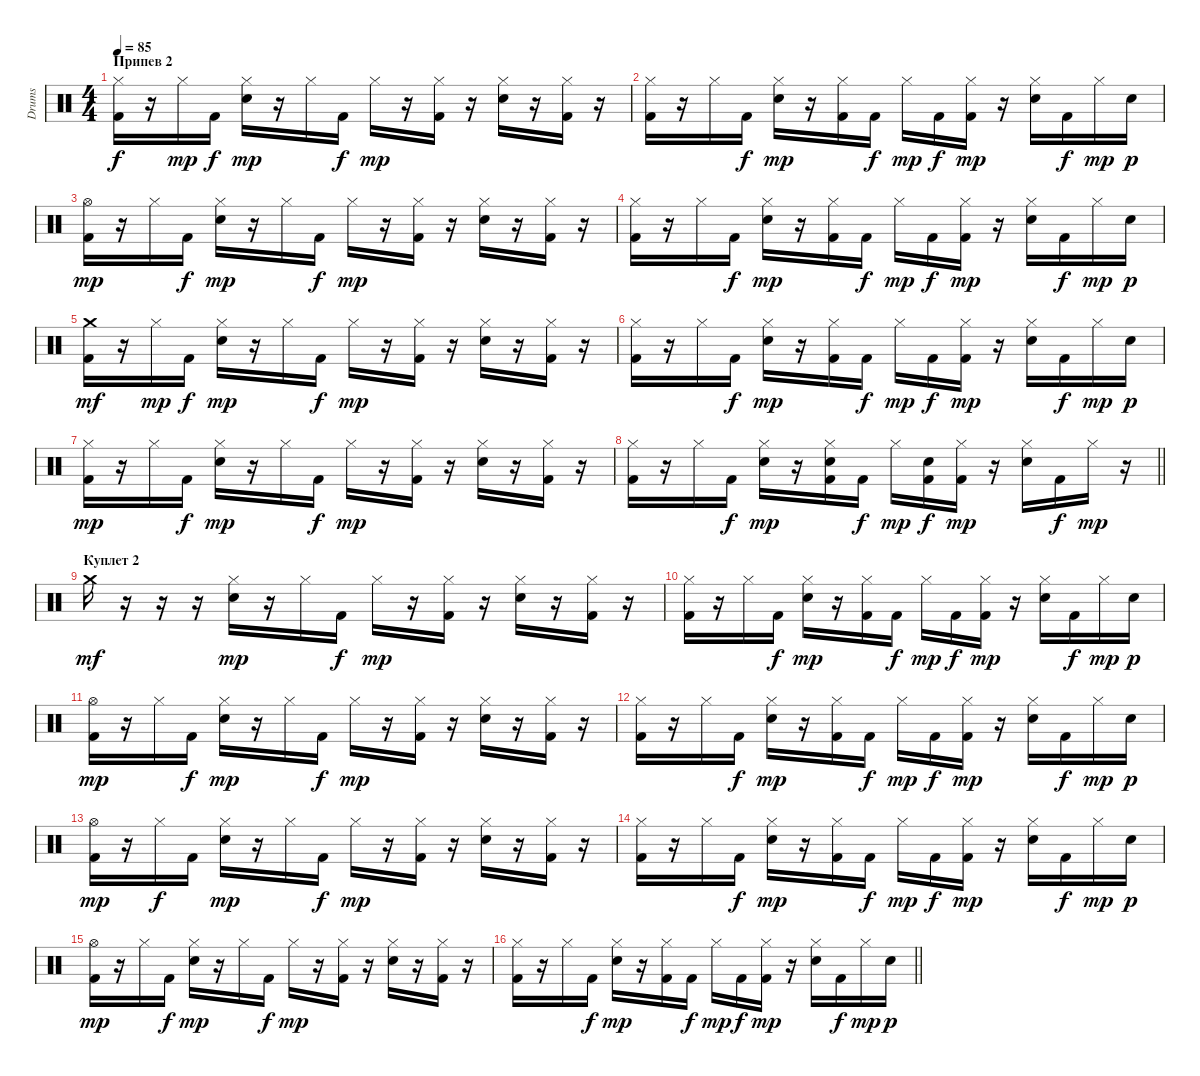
\track ("Drums" "Drums") {instrument percussion}
\staff {score}
\articulation defaults
\ts (4 4)
\section ("" "Припев 2")
\tempo 85
\clef neutral
\ks c
("Hi-Hat (closed)" "Kick (hit) 2").16{dy f} r.16 "Hi-Hat (closed)".16{dy mp} "Kick (hit) 2".16{dy f} ("Hi-Hat (closed)" "Snare (hit) 2").16{dy mp} r.16 "Hi-Hat (closed)".16 "Kick (hit) 2".16{dy f} "Hi-Hat (closed)".16{dy mp} r.16 ("Hi-Hat (closed)" "Kick (hit) 2").16 r.16 ("Hi-Hat (closed)" "Snare (hit) 2").16 r.16 ("Hi-Hat (closed)" "Kick (hit) 2").16 r.16 |
("Hi-Hat (closed)" "Kick (hit) 2").16 r.16 "Hi-Hat (closed)".16 "Kick (hit) 2".16{dy f} ("Hi-Hat (closed)" "Snare (hit) 2").16{dy mp} r.16 ("Hi-Hat (closed)" "Kick (hit) 2").16 "Kick (hit) 2".16{dy f} "Hi-Hat (closed)".16{dy mp} "Kick (hit) 2".16{dy f} ("Hi-Hat (closed)" "Kick (hit) 2").16{dy mp} r.16 ("Hi-Hat (closed)" "Snare (hit) 2").16 "Kick (hit) 2".16{dy f} "Hi-Hat (closed)".16{dy mp} "Snare (hit) 2".16{dy p} |
("Hi-Hat (open)" "Kick (hit) 2").16{dy mp} r.16 "Hi-Hat (closed)".16 "Kick (hit) 2".16{dy f} ("Hi-Hat (closed)" "Snare (hit) 2").16{dy mp} r.16 "Hi-Hat (closed)".16 "Kick (hit) 2".16{dy f} "Hi-Hat (closed)".16{dy mp} r.16 ("Hi-Hat (closed)" "Kick (hit) 2").16 r.16 ("Hi-Hat (closed)" "Snare (hit) 2").16 r.16 ("Hi-Hat (closed)" "Kick (hit) 2").16 r.16 |
("Hi-Hat (closed)" "Kick (hit) 2").16 r.16 "Hi-Hat (closed)".16 "Kick (hit) 2".16{dy f} ("Hi-Hat (closed)" "Snare (hit) 2").16{dy mp} r.16 ("Hi-Hat (closed)" "Kick (hit) 2").16 "Kick (hit) 2".16{dy f} "Hi-Hat (closed)".16{dy mp} "Kick (hit) 2".16{dy f} ("Hi-Hat (closed)" "Kick (hit) 2").16{dy mp} r.16 ("Hi-Hat (closed)" "Snare (hit) 2").16 "Kick (hit) 2".16{dy f} "Hi-Hat (closed)".16{dy mp} "Snare (hit) 2".16{dy p} |
("Crash medium (hit)" "Kick (hit) 2").16{dy mf} r.16 "Hi-Hat (closed)".16{dy mp} "Kick (hit) 2".16{dy f} ("Hi-Hat (closed)" "Snare (hit) 2").16{dy mp} r.16 "Hi-Hat (closed)".16 "Kick (hit) 2".16{dy f} "Hi-Hat (closed)".16{dy mp} r.16 ("Hi-Hat (closed)" "Kick (hit) 2").16 r.16 ("Hi-Hat (closed)" "Snare (hit) 2").16 r.16 ("Hi-Hat (closed)" "Kick (hit) 2").16 r.16 |
("Hi-Hat (closed)" "Kick (hit) 2").16 r.16 "Hi-Hat (closed)".16 "Kick (hit) 2".16{dy f} ("Hi-Hat (closed)" "Snare (hit) 2").16{dy mp} r.16 ("Hi-Hat (closed)" "Kick (hit) 2").16 "Kick (hit) 2".16{dy f} "Hi-Hat (closed)".16{dy mp} "Kick (hit) 2".16{dy f} ("Hi-Hat (closed)" "Kick (hit) 2").16{dy mp} r.16 ("Hi-Hat (closed)" "Snare (hit) 2").16 "Kick (hit) 2".16{dy f} "Hi-Hat (closed)".16{dy mp} "Snare (hit) 2".16{dy p} |
("Hi-Hat (closed)" "Kick (hit) 2").16{dy mp} r.16 "Hi-Hat (closed)".16 "Kick (hit) 2".16{dy f} ("Hi-Hat (closed)" "Snare (hit) 2").16{dy mp} r.16 "Hi-Hat (closed)".16 "Kick (hit) 2".16{dy f} "Hi-Hat (closed)".16{dy mp} r.16 ("Hi-Hat (closed)" "Kick (hit) 2").16 r.16 ("Hi-Hat (closed)" "Snare (hit) 2").16 r.16 ("Hi-Hat (closed)" "Kick (hit) 2").16 r.16 |
\barLineRight lightlight
("Hi-Hat (closed)" "Kick (hit) 2").16 r.16 "Hi-Hat (closed)".16 "Kick (hit) 2".16{dy f} ("Hi-Hat (closed)" "Snare (hit) 2").16{dy mp} r.16 ("Hi-Hat (closed)" "Snare (hit) 2" "Kick (hit) 2").16 "Kick (hit) 2".16{dy f} "Hi-Hat (closed)".16{dy mp} ("Snare (hit) 2" "Kick (hit) 2").16{dy f} ("Hi-Hat (closed)" "Kick (hit) 2").16{dy mp} r.16 ("Hi-Hat (closed)" "Snare (hit) 2").16 "Kick (hit) 2".16{dy f} "Hi-Hat (closed)".16{dy mp} r.16 |
\section ("" "Куплет 2")
"Crash medium (hit)".16{dy mf} r.16 r.16 r.16 ("Hi-Hat (closed)" "Snare (hit) 2").16{dy mp} r.16 "Hi-Hat (closed)".16 "Kick (hit) 2".16{dy f} "Hi-Hat (closed)".16{dy mp} r.16 ("Hi-Hat (closed)" "Kick (hit) 2").16 r.16 ("Hi-Hat (closed)" "Snare (hit) 2").16 r.16 ("Hi-Hat (closed)" "Kick (hit) 2").16 r.16 |
("Hi-Hat (closed)" "Kick (hit) 2").16 r.16 "Hi-Hat (closed)".16 "Kick (hit) 2".16{dy f} ("Hi-Hat (closed)" "Snare (hit) 2").16{dy mp} r.16 ("Hi-Hat (closed)" "Kick (hit) 2").16 "Kick (hit) 2".16{dy f} "Hi-Hat (closed)".16{dy mp} "Kick (hit) 2".16{dy f} ("Hi-Hat (closed)" "Kick (hit) 2").16{dy mp} r.16 ("Hi-Hat (closed)" "Snare (hit) 2").16 "Kick (hit) 2".16{dy f} "Hi-Hat (closed)".16{dy mp} "Snare (hit) 2".16{dy p} |
("Hi-Hat (open)" "Kick (hit) 2").16{dy mp} r.16 "Hi-Hat (closed)".16 "Kick (hit) 2".16{dy f} ("Hi-Hat (closed)" "Snare (hit) 2").16{dy mp} r.16 "Hi-Hat (closed)".16 "Kick (hit) 2".16{dy f} "Hi-Hat (closed)".16{dy mp} r.16 ("Hi-Hat (closed)" "Kick (hit) 2").16 r.16 ("Hi-Hat (closed)" "Snare (hit) 2").16 r.16 ("Hi-Hat (closed)" "Kick (hit) 2").16 r.16 |
("Hi-Hat (closed)" "Kick (hit) 2").16 r.16 "Hi-Hat (closed)".16 "Kick (hit) 2".16{dy f} ("Hi-Hat (closed)" "Snare (hit) 2").16{dy mp} r.16 ("Hi-Hat (closed)" "Kick (hit) 2").16 "Kick (hit) 2".16{dy f} "Hi-Hat (closed)".16{dy mp} "Kick (hit) 2".16{dy f} ("Hi-Hat (closed)" "Kick (hit) 2").16{dy mp} r.16 ("Hi-Hat (closed)" "Snare (hit) 2").16 "Kick (hit) 2".16{dy f} "Hi-Hat (closed)".16{dy mp} "Snare (hit) 2".16{dy p} |
("Hi-Hat (open)" "Kick (hit) 2").16{dy mp} r.16 "Hi-Hat (closed)".16{dy f} "Kick (hit) 2".16 ("Hi-Hat (closed)" "Snare (hit) 2").16{dy mp} r.16 "Hi-Hat (closed)".16 "Kick (hit) 2".16{dy f} "Hi-Hat (closed)".16{dy mp} r.16 ("Hi-Hat (closed)" "Kick (hit) 2").16 r.16 ("Hi-Hat (closed)" "Snare (hit) 2").16 r.16 ("Hi-Hat (closed)" "Kick (hit) 2").16 r.16 |
("Hi-Hat (closed)" "Kick (hit) 2").16 r.16 "Hi-Hat (closed)".16 "Kick (hit) 2".16{dy f} ("Hi-Hat (closed)" "Snare (hit) 2").16{dy mp} r.16 ("Hi-Hat (closed)" "Kick (hit) 2").16 "Kick (hit) 2".16{dy f} "Hi-Hat (closed)".16{dy mp} "Kick (hit) 2".16{dy f} ("Hi-Hat (closed)" "Kick (hit) 2").16{dy mp} r.16 ("Hi-Hat (closed)" "Snare (hit) 2").16 "Kick (hit) 2".16{dy f} "Hi-Hat (closed)".16{dy mp} "Snare (hit) 2".16{dy p} |
("Hi-Hat (open)" "Kick (hit) 2").16{dy mp} r.16 "Hi-Hat (closed)".16 "Kick (hit) 2".16{dy f} ("Hi-Hat (closed)" "Snare (hit) 2").16{dy mp} r.16 "Hi-Hat (closed)".16 "Kick (hit) 2".16{dy f} "Hi-Hat (closed)".16{dy mp} r.16 ("Hi-Hat (closed)" "Kick (hit) 2").16 r.16 ("Hi-Hat (closed)" "Snare (hit) 2").16 r.16 ("Hi-Hat (closed)" "Kick (hit) 2").16 r.16 |
\barLineRight lightlight
("Hi-Hat (closed)" "Kick (hit) 2").16 r.16 "Hi-Hat (closed)".16 "Kick (hit) 2".16{dy f} ("Hi-Hat (closed)" "Snare (hit) 2").16{dy mp} r.16 ("Hi-Hat (closed)" "Kick (hit) 2").16 "Kick (hit) 2".16{dy f} "Hi-Hat (closed)".16{dy mp} "Kick (hit) 2".16{dy f} ("Hi-Hat (closed)" "Kick (hit) 2").16{dy mp} r.16 ("Hi-Hat (closed)" "Snare (hit) 2").16 "Kick (hit) 2".16{dy f} "Hi-Hat (closed)".16{dy mp} "Snare (hit) 2".16{dy p}
